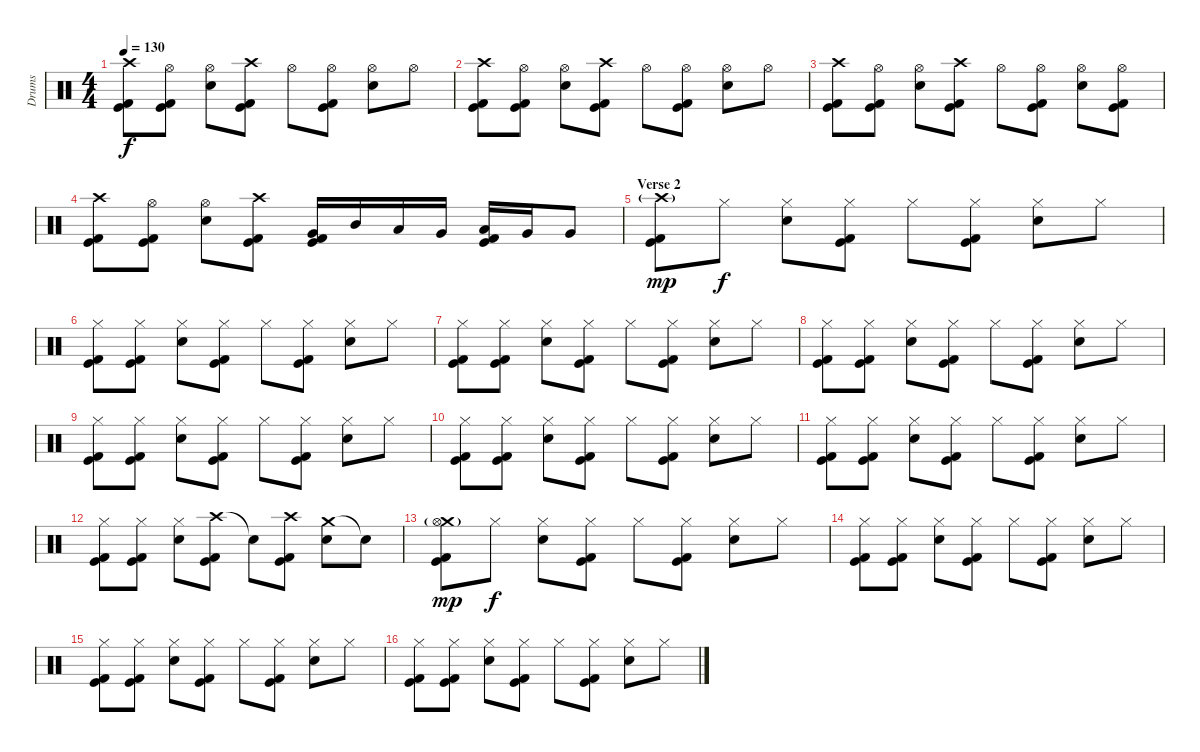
\track ("Drums" "Drums") {instrument percussion}
\staff {score}
\articulation defaults
\ts (4 4)
\tempo 130
\clef neutral
\ks c
("Crash high (hit)" "Kick (hit) 2" "Kick (hit)").8{dy f} ("Hi-Hat (open)" "Kick (hit) 2" "Kick (hit)").8 ("Hi-Hat (open)" "Electric Snare (hit)").8 ("Crash high (hit)" "Kick (hit) 2" "Kick (hit)").8 "Hi-Hat (open)".8 ("Hi-Hat (open)" "Kick (hit) 2" "Kick (hit)").8 ("Hi-Hat (open)" "Electric Snare (hit)").8 "Hi-Hat (open)".8 |
("Crash high (hit)" "Kick (hit) 2" "Kick (hit)").8 ("Hi-Hat (open)" "Kick (hit) 2" "Kick (hit)").8 ("Hi-Hat (open)" "Electric Snare (hit)").8 ("Crash high (hit)" "Kick (hit) 2" "Kick (hit)").8 "Hi-Hat (open)".8 ("Hi-Hat (open)" "Kick (hit) 2" "Kick (hit)").8 ("Hi-Hat (open)" "Electric Snare (hit)").8 "Hi-Hat (open)".8 |
("Crash high (hit)" "Kick (hit) 2" "Kick (hit)").8 ("Hi-Hat (open)" "Kick (hit) 2" "Kick (hit)").8 ("Hi-Hat (open)" "Electric Snare (hit)").8 ("Crash high (hit)" "Kick (hit) 2" "Kick (hit)").8 "Hi-Hat (open)".8 ("Hi-Hat (open)" "Kick (hit) 2" "Kick (hit)").8 ("Hi-Hat (open)" "Electric Snare (hit)").8 ("Hi-Hat (open)" "Kick (hit) 2" "Kick (hit)").8 |
("Crash high (hit)" "Kick (hit) 2" "Kick (hit)").8 ("Hi-Hat (open)" "Kick (hit) 2" "Kick (hit)").8 ("Hi-Hat (open)" "Electric Snare (hit)").8 ("Crash high (hit)" "Kick (hit) 2" "Kick (hit)").8 ("Very Low Tom (hit)" "Kick (hit) 2" "Kick (hit)").16 "Mid Tom (hit)".16 "Low Tom (hit)".16 "Very Low Tom (hit)".16 ("Low Tom (hit)" "Kick (hit) 2" "Kick (hit)").16 "Very Low Tom (hit)".16 "Very Low Tom (hit)".8 |
\section ("" "Verse 2")
("Crash high (hit)"{g} "Kick (hit) 2" "Kick (hit)").8{dy mp} "Hi-Hat (closed)".8{dy f} ("Hi-Hat (closed)" "Electric Snare (hit)").8 ("Hi-Hat (closed)" "Kick (hit) 2" "Kick (hit)").8 "Hi-Hat (closed)".8 ("Hi-Hat (closed)" "Kick (hit) 2" "Kick (hit)").8 ("Hi-Hat (closed)" "Electric Snare (hit)").8 "Hi-Hat (closed)".8 |
("Hi-Hat (closed)" "Kick (hit) 2" "Kick (hit)").8 ("Hi-Hat (closed)" "Kick (hit) 2" "Kick (hit)").8 ("Hi-Hat (closed)" "Electric Snare (hit)").8 ("Hi-Hat (closed)" "Kick (hit) 2" "Kick (hit)").8 "Hi-Hat (closed)".8 ("Hi-Hat (closed)" "Kick (hit) 2" "Kick (hit)").8 ("Hi-Hat (closed)" "Electric Snare (hit)").8 "Hi-Hat (closed)".8 |
("Hi-Hat (closed)" "Kick (hit) 2" "Kick (hit)").8 ("Hi-Hat (closed)" "Kick (hit) 2" "Kick (hit)").8 ("Hi-Hat (closed)" "Electric Snare (hit)").8 ("Hi-Hat (closed)" "Kick (hit) 2" "Kick (hit)").8 "Hi-Hat (closed)".8 ("Hi-Hat (closed)" "Kick (hit) 2" "Kick (hit)").8 ("Hi-Hat (closed)" "Electric Snare (hit)").8 "Hi-Hat (closed)".8 |
("Hi-Hat (closed)" "Kick (hit) 2" "Kick (hit)").8 ("Hi-Hat (closed)" "Kick (hit) 2" "Kick (hit)").8 ("Hi-Hat (closed)" "Electric Snare (hit)").8 ("Hi-Hat (closed)" "Kick (hit) 2" "Kick (hit)").8 "Hi-Hat (closed)".8 ("Hi-Hat (closed)" "Kick (hit) 2" "Kick (hit)").8 ("Hi-Hat (closed)" "Electric Snare (hit)").8 "Hi-Hat (closed)".8 |
("Hi-Hat (closed)" "Kick (hit) 2" "Kick (hit)").8 ("Hi-Hat (closed)" "Kick (hit) 2" "Kick (hit)").8 ("Hi-Hat (closed)" "Electric Snare (hit)").8 ("Hi-Hat (closed)" "Kick (hit) 2" "Kick (hit)").8 "Hi-Hat (closed)".8 ("Hi-Hat (closed)" "Kick (hit) 2" "Kick (hit)").8 ("Hi-Hat (closed)" "Electric Snare (hit)").8 "Hi-Hat (closed)".8 |
("Hi-Hat (closed)" "Kick (hit) 2" "Kick (hit)").8 ("Hi-Hat (closed)" "Kick (hit) 2" "Kick (hit)").8 ("Hi-Hat (closed)" "Electric Snare (hit)").8 ("Hi-Hat (closed)" "Kick (hit) 2" "Kick (hit)").8 "Hi-Hat (closed)".8 ("Hi-Hat (closed)" "Kick (hit) 2" "Kick (hit)").8 ("Hi-Hat (closed)" "Electric Snare (hit)").8 "Hi-Hat (closed)".8 |
("Hi-Hat (closed)" "Kick (hit) 2" "Kick (hit)").8 ("Hi-Hat (closed)" "Kick (hit) 2" "Kick (hit)").8 ("Hi-Hat (closed)" "Electric Snare (hit)").8 ("Hi-Hat (closed)" "Kick (hit) 2" "Kick (hit)").8 "Hi-Hat (closed)".8 ("Hi-Hat (closed)" "Kick (hit) 2" "Kick (hit)").8 ("Hi-Hat (closed)" "Electric Snare (hit)").8 "Hi-Hat (closed)".8 |
("Hi-Hat (closed)" "Kick (hit) 2" "Kick (hit)").8 ("Hi-Hat (closed)" "Kick (hit) 2" "Kick (hit)").8 ("Hi-Hat (closed)" "Electric Snare (hit)").8 ("Crash high (hit)" "Kick (hit) 2" "Kick (hit)").8 "Snare (hit)"{t}.8 ("Crash high (hit)" "Kick (hit) 2" "Kick (hit)").8 ("Crash medium (hit)" "Electric Snare (hit)").8 "Snare (hit)"{t}.8 |
("Crash medium (hit)" "Hi-Hat (open)"{g} "Kick (hit) 2" "Kick (hit)").8{dy mp} "Hi-Hat (closed)".8{dy f} ("Hi-Hat (closed)" "Electric Snare (hit)").8 ("Hi-Hat (closed)" "Kick (hit) 2" "Kick (hit)").8 "Hi-Hat (closed)".8 ("Hi-Hat (closed)" "Kick (hit) 2" "Kick (hit)").8 ("Hi-Hat (closed)" "Electric Snare (hit)").8 "Hi-Hat (closed)".8 |
("Hi-Hat (closed)" "Kick (hit) 2" "Kick (hit)").8 ("Hi-Hat (closed)" "Kick (hit) 2" "Kick (hit)").8 ("Hi-Hat (closed)" "Electric Snare (hit)").8 ("Hi-Hat (closed)" "Kick (hit) 2" "Kick (hit)").8 "Hi-Hat (closed)".8 ("Hi-Hat (closed)" "Kick (hit) 2" "Kick (hit)").8 ("Hi-Hat (closed)" "Electric Snare (hit)").8 "Hi-Hat (closed)".8 |
("Hi-Hat (closed)" "Kick (hit) 2" "Kick (hit)").8 ("Hi-Hat (closed)" "Kick (hit) 2" "Kick (hit)").8 ("Hi-Hat (closed)" "Electric Snare (hit)").8 ("Hi-Hat (closed)" "Kick (hit) 2" "Kick (hit)").8 "Hi-Hat (closed)".8 ("Hi-Hat (closed)" "Kick (hit) 2" "Kick (hit)").8 ("Hi-Hat (closed)" "Electric Snare (hit)").8 "Hi-Hat (closed)".8 |
("Hi-Hat (closed)" "Kick (hit) 2" "Kick (hit)").8 ("Hi-Hat (closed)" "Kick (hit) 2" "Kick (hit)").8 ("Hi-Hat (closed)" "Electric Snare (hit)").8 ("Hi-Hat (closed)" "Kick (hit) 2" "Kick (hit)").8 "Hi-Hat (closed)".8 ("Hi-Hat (closed)" "Kick (hit) 2" "Kick (hit)").8 ("Hi-Hat (closed)" "Electric Snare (hit)").8 "Hi-Hat (closed)".8
